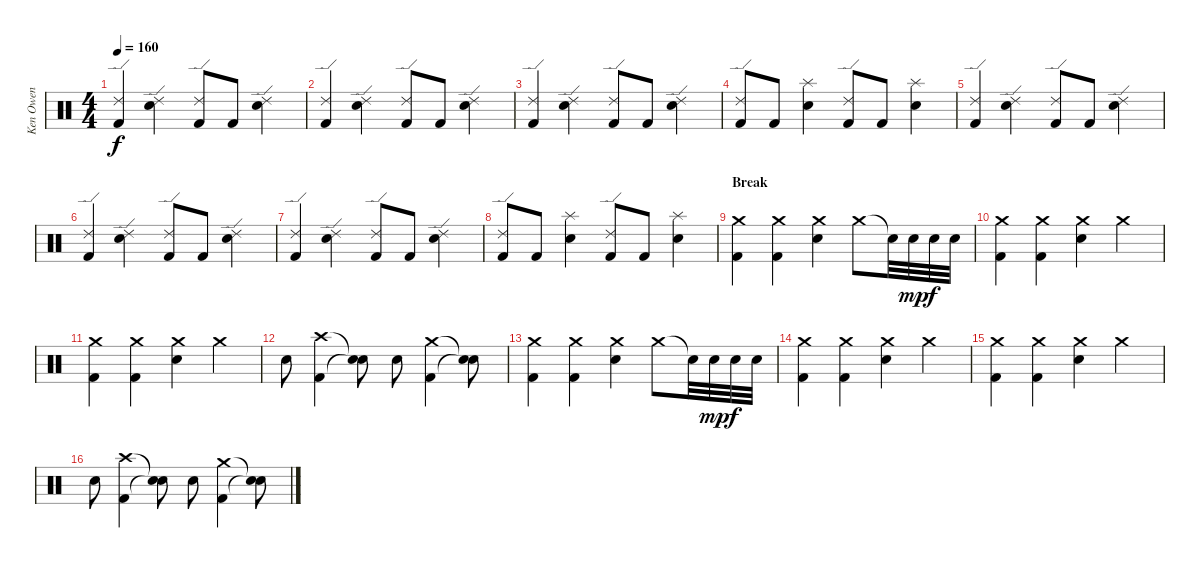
\track ("Ken Owen" "Ken Owen") {instrument percussion}
\staff {score}
\articulation defaults
\ts (4 4)
\tempo 160
\clef neutral
\ks c
("Ride (edge) 2" "Kick (hit) 2").4{dy f} ("Ride (edge) 2" "Electric Snare (hit)").4 ("Ride (edge) 2" "Kick (hit) 2").8 "Kick (hit) 2".8 ("Ride (edge) 2" "Electric Snare (hit)").4 |
("Ride (edge) 2" "Kick (hit) 2").4 ("Ride (edge) 2" "Electric Snare (hit)").4 ("Ride (edge) 2" "Kick (hit) 2").8 "Kick (hit) 2".8 ("Ride (edge) 2" "Electric Snare (hit)").4 |
("Ride (edge) 2" "Kick (hit) 2").4 ("Ride (edge) 2" "Electric Snare (hit)").4 ("Ride (edge) 2" "Kick (hit) 2").8 "Kick (hit) 2".8 ("Ride (edge) 2" "Electric Snare (hit)").4 |
("Ride (edge) 2" "Kick (hit) 2").8 "Kick (hit) 2".8 ("Splash (hit)" "Electric Snare (hit)").4 ("Ride (edge) 2" "Kick (hit) 2").8 "Kick (hit) 2".8 ("Splash (hit)" "Electric Snare (hit)").4 |
("Ride (edge) 2" "Kick (hit) 2").4 ("Ride (edge) 2" "Electric Snare (hit)").4 ("Ride (edge) 2" "Kick (hit) 2").8 "Kick (hit) 2".8 ("Ride (edge) 2" "Electric Snare (hit)").4 |
("Ride (edge) 2" "Kick (hit) 2").4 ("Ride (edge) 2" "Electric Snare (hit)").4 ("Ride (edge) 2" "Kick (hit) 2").8 "Kick (hit) 2".8 ("Ride (edge) 2" "Electric Snare (hit)").4 |
("Ride (edge) 2" "Kick (hit) 2").4 ("Ride (edge) 2" "Electric Snare (hit)").4 ("Ride (edge) 2" "Kick (hit) 2").8 "Kick (hit) 2".8 ("Ride (edge) 2" "Electric Snare (hit)").4 |
("Ride (edge) 2" "Kick (hit) 2").8 "Kick (hit) 2".8 ("Splash (hit)" "Electric Snare (hit)").4 ("Ride (edge) 2" "Kick (hit) 2").8 "Kick (hit) 2".8 ("Splash (hit)" "Electric Snare (hit)").4 |
\section ("" "Break")
("Crash medium (hit)" "Kick (hit) 2").4 ("Crash medium (hit)" "Kick (hit) 2").4 ("Crash medium (hit)" "Electric Snare (hit)").4 "Crash medium (hit)".8 "Snare (hit)"{t}.32 "Electric Snare (hit)".32{dy mp} "Electric Snare (hit)".32{dy f} "Electric Snare (hit)".32 |
("Crash medium (hit)" "Kick (hit) 2").4 ("Crash medium (hit)" "Kick (hit) 2").4 ("Crash medium (hit)" "Electric Snare (hit)").4 "Crash medium (hit)".4 |
("Crash medium (hit)" "Kick (hit) 2").4 ("Crash medium (hit)" "Kick (hit) 2").4 ("Crash medium (hit)" "Electric Snare (hit)").4 "Crash medium (hit)".4 |
"Electric Snare (hit)".8 ("Crash high (hit)" "Kick (hit) 2").4 ("Snare (hit)"{t} "Snare (hit)"{t}).8 "Electric Snare (hit)".8 ("Crash medium (hit)" "Kick (hit) 2").4 ("Snare (hit)"{t} "Snare (hit)"{t}).8 |
("Crash medium (hit)" "Kick (hit) 2").4 ("Crash medium (hit)" "Kick (hit) 2").4 ("Crash medium (hit)" "Electric Snare (hit)").4 "Crash medium (hit)".8 "Snare (hit)"{t}.32 "Electric Snare (hit)".32{dy mp} "Electric Snare (hit)".32{dy f} "Electric Snare (hit)".32 |
("Crash medium (hit)" "Kick (hit) 2").4 ("Crash medium (hit)" "Kick (hit) 2").4 ("Crash medium (hit)" "Electric Snare (hit)").4 "Crash medium (hit)".4 |
("Crash medium (hit)" "Kick (hit) 2").4 ("Crash medium (hit)" "Kick (hit) 2").4 ("Crash medium (hit)" "Electric Snare (hit)").4 "Crash medium (hit)".4 |
"Electric Snare (hit)".8 ("Crash high (hit)" "Kick (hit) 2").4 ("Snare (hit)"{t} "Snare (hit)"{t}).8 "Electric Snare (hit)".8 ("Crash medium (hit)" "Kick (hit) 2").4 ("Snare (hit)"{t} "Snare (hit)"{t}).8
